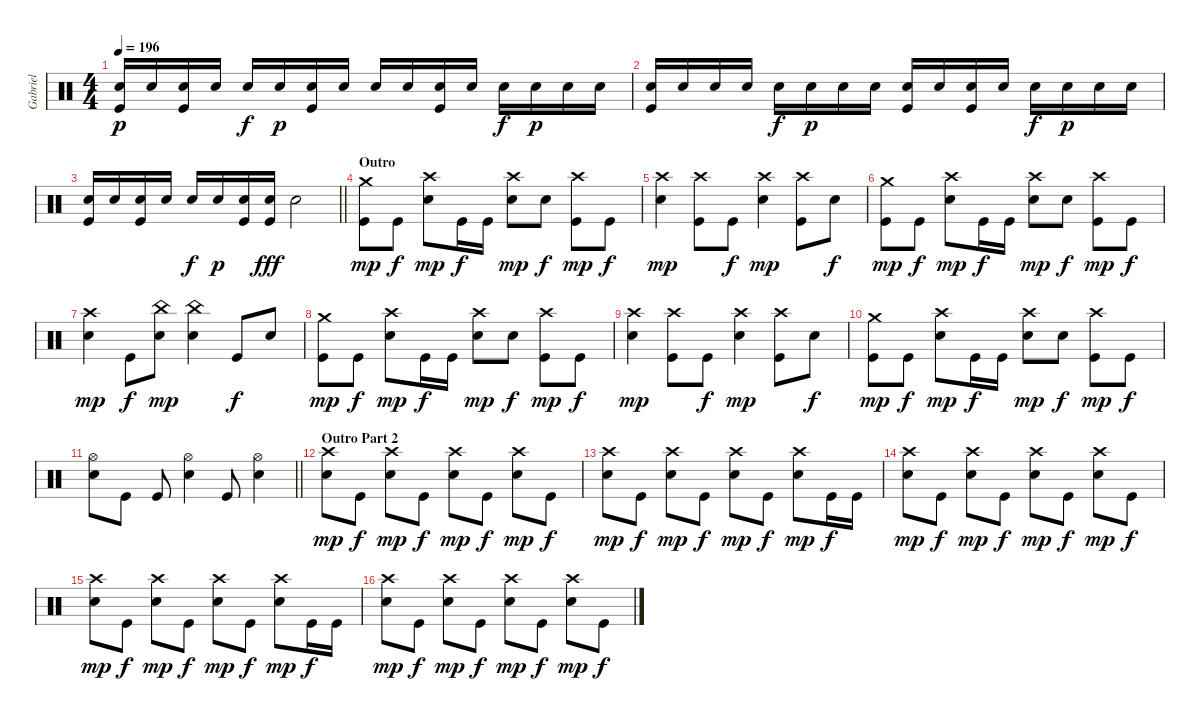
\track ("Gabriel" "Gabriel") {instrument percussion}
\staff {score}
\articulation defaults
\ts (4 4)
\tempo 196
\clef neutral
\ks aminor
("Snare (hit) 2" "Kick (hit)").16{dy p} "Snare (hit) 2".16 ("Snare (hit) 2" "Kick (hit)").16 "Snare (hit) 2".16 "Snare (hit) 2".16{dy f} "Snare (hit) 2".16{dy p} ("Snare (hit) 2" "Kick (hit)").16 "Snare (hit) 2".16 "Snare (hit) 2".16 "Snare (hit) 2".16 ("Snare (hit) 2" "Kick (hit)").16 "Snare (hit) 2".16 "Snare (hit) 2".16{dy f} "Snare (hit) 2".16{dy p} "Snare (hit) 2".16 "Snare (hit) 2".16 |
("Snare (hit) 2" "Kick (hit)").16 "Snare (hit) 2".16 "Snare (hit) 2".16 "Snare (hit) 2".16 "Snare (hit) 2".16{dy f} "Snare (hit) 2".16{dy p} "Snare (hit) 2".16 "Snare (hit) 2".16 ("Snare (hit) 2" "Kick (hit)").16 "Snare (hit) 2".16 ("Snare (hit) 2" "Kick (hit)").16 "Snare (hit) 2".16 "Snare (hit) 2".16{dy f} "Snare (hit) 2".16{dy p} "Snare (hit) 2".16 "Snare (hit) 2".16 |
\barLineRight lightlight
("Snare (hit) 2" "Kick (hit)").16 "Snare (hit) 2".16 ("Snare (hit) 2" "Kick (hit)").16 "Snare (hit) 2".16 "Snare (hit) 2".16{dy f} "Snare (hit) 2".16{dy p} ("Snare (hit) 2" "Kick (hit)").16 ("Snare (hit) 2" "Kick (hit)").16{dy fff} "Snare (hit) 2".2 |
\section ("" "Outro")
("Crash medium (hit)" "Kick (hit)").8{dy mp} "Kick (hit)".8{dy f} ("Crash high (hit)" "Snare (hit) 2").8{dy mp} "Kick (hit)".16{dy f} "Kick (hit)".16 ("Crash high (hit)" "Snare (hit) 2").8{dy mp} "Snare (hit) 2".8{dy f} ("Crash high (hit)" "Kick (hit)").8{dy mp} "Kick (hit)".8{dy f} |
("Crash high (hit)" "Snare (hit) 2").4{dy mp} ("Crash high (hit)" "Kick (hit)").8 "Kick (hit)".8{dy f} ("Crash high (hit)" "Snare (hit) 2").4{dy mp} ("Crash high (hit)" "Kick (hit)").8 "Snare (hit) 2".8{dy f} |
("Crash medium (hit)" "Kick (hit)").8{dy mp} "Kick (hit)".8{dy f} ("Crash high (hit)" "Snare (hit) 2").8{dy mp} "Kick (hit)".16{dy f} "Kick (hit)".16 ("Crash high (hit)" "Snare (hit) 2").8{dy mp} "Snare (hit) 2".8{dy f} ("Crash high (hit)" "Kick (hit)").8{dy mp} "Kick (hit)".8{dy f} |
("Crash high (hit)" "Snare (hit) 2").4{dy mp} "Kick (hit)".8{dy f} ("China (hit)" "Snare (hit) 2").8{dy mp} ("China (hit)" "Snare (hit) 2").4 "Kick (hit)".8{dy f} "Snare (hit) 2".8 |
("Crash medium (hit)" "Kick (hit)").8{dy mp} "Kick (hit)".8{dy f} ("Crash high (hit)" "Snare (hit) 2").8{dy mp} "Kick (hit)".16{dy f} "Kick (hit)".16 ("Crash high (hit)" "Snare (hit) 2").8{dy mp} "Snare (hit) 2".8{dy f} ("Crash high (hit)" "Kick (hit)").8{dy mp} "Kick (hit)".8{dy f} |
("Crash high (hit)" "Snare (hit) 2").4{dy mp} ("Crash high (hit)" "Kick (hit)").8 "Kick (hit)".8{dy f} ("Crash high (hit)" "Snare (hit) 2").4{dy mp} ("Crash high (hit)" "Kick (hit)").8 "Snare (hit) 2".8{dy f} |
("Crash medium (hit)" "Kick (hit)").8{dy mp} "Kick (hit)".8{dy f} ("Crash high (hit)" "Snare (hit) 2").8{dy mp} "Kick (hit)".16{dy f} "Kick (hit)".16 ("Crash high (hit)" "Snare (hit) 2").8{dy mp} "Snare (hit) 2".8{dy f} ("Crash high (hit)" "Kick (hit)").8{dy mp} "Kick (hit)".8{dy f} |
\barLineRight lightlight
("Hi-Hat (open)" "Snare (hit) 2").8 "Kick (hit)".8 "Kick (hit)".8 ("Hi-Hat (open)" "Snare (hit) 2").4 "Kick (hit)".8 ("Hi-Hat (open)" "Snare (hit) 2").4 |
\section ("" "Outro Part 2")
("Crash high (hit)" "Snare (hit) 2").8{dy mp} "Kick (hit)".8{dy f} ("Crash high (hit)" "Snare (hit) 2").8{dy mp} "Kick (hit)".8{dy f} ("Crash high (hit)" "Snare (hit) 2").8{dy mp} "Kick (hit)".8{dy f} ("Crash high (hit)" "Snare (hit) 2").8{dy mp} "Kick (hit)".8{dy f} |
("Crash high (hit)" "Snare (hit) 2").8{dy mp} "Kick (hit)".8{dy f} ("Crash high (hit)" "Snare (hit) 2").8{dy mp} "Kick (hit)".8{dy f} ("Crash high (hit)" "Snare (hit) 2").8{dy mp} "Kick (hit)".8{dy f} ("Crash high (hit)" "Snare (hit) 2").8{dy mp} "Kick (hit)".16{dy f} "Kick (hit)".16 |
("Crash high (hit)" "Snare (hit) 2").8{dy mp} "Kick (hit)".8{dy f} ("Crash high (hit)" "Snare (hit) 2").8{dy mp} "Kick (hit)".8{dy f} ("Crash high (hit)" "Snare (hit) 2").8{dy mp} "Kick (hit)".8{dy f} ("Crash high (hit)" "Snare (hit) 2").8{dy mp} "Kick (hit)".8{dy f} |
("Crash high (hit)" "Snare (hit) 2").8{dy mp} "Kick (hit)".8{dy f} ("Crash high (hit)" "Snare (hit) 2").8{dy mp} "Kick (hit)".8{dy f} ("Crash high (hit)" "Snare (hit) 2").8{dy mp} "Kick (hit)".8{dy f} ("Crash high (hit)" "Snare (hit) 2").8{dy mp} "Kick (hit)".16{dy f} "Kick (hit)".16 |
("Crash high (hit)" "Snare (hit) 2").8{dy mp} "Kick (hit)".8{dy f} ("Crash high (hit)" "Snare (hit) 2").8{dy mp} "Kick (hit)".8{dy f} ("Crash high (hit)" "Snare (hit) 2").8{dy mp} "Kick (hit)".8{dy f} ("Crash high (hit)" "Snare (hit) 2").8{dy mp} "Kick (hit)".8{dy f}
